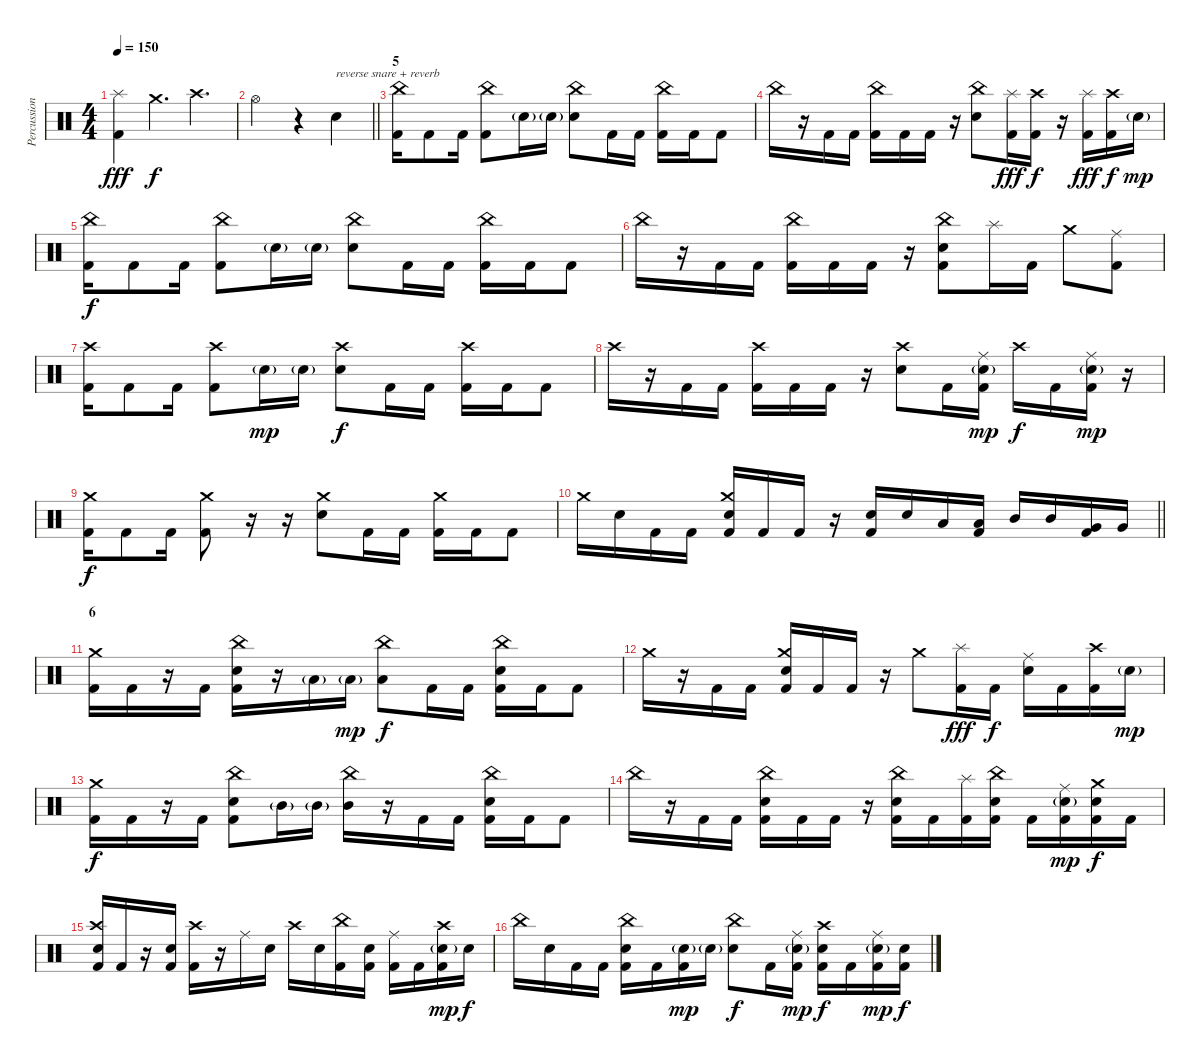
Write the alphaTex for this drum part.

\track ("Percussioni" "Percussion") {instrument percussion}
\staff {score}
\articulation defaults
\ts (4 4)
\tempo 150
\clef neutral
\ks c
("Splash (hit)" "Kick (hit) 2").4{dy fff} "Crash medium (hit)".4{d dy f} "Crash high (hit)".4{d} |
\barLineRight lightlight "Hi-Hat (open)".2
r.4 "Electric Snare (hit)".4{txt "reverse snare + reverb"} |
\section ("" "5")
("China (hit)" "Kick (hit) 2").16 "Kick (hit) 2".8 "Kick (hit) 2".16 ("China (hit)" "Kick (hit) 2").8 "Electric Snare (hit)"{g}.16 "Electric Snare (hit)"{g}.16 ("China (hit)" "Electric Snare (hit)").8 "Kick (hit) 2".16 "Kick (hit) 2".16 ("China (hit)" "Kick (hit) 2").16 "Kick (hit) 2".16 "Kick (hit) 2".8 |
"China (hit)".16 r.16 "Kick (hit) 2".16 "Kick (hit) 2".16 ("China (hit)" "Kick (hit) 2").16 "Kick (hit) 2".16 "Kick (hit) 2".16 r.16 ("China (hit)" "Electric Snare (hit)").8 ("Splash (hit)" "Kick (hit) 2").16{dy fff} ("Crash high (hit)" "Kick (hit) 2").16{dy f} r.16 ("Splash (hit)" "Kick (hit) 2").16{dy fff} ("Crash high (hit)" "Kick (hit) 2").16{dy f} "Electric Snare (hit)"{g}.16{dy mp} |
("China (hit)" "Kick (hit) 2").16{dy f} "Kick (hit) 2".8 "Kick (hit) 2".16 ("China (hit)" "Kick (hit) 2").8 "Electric Snare (hit)"{g}.16 "Electric Snare (hit)"{g}.16 ("China (hit)" "Electric Snare (hit)").8 "Kick (hit) 2".16 "Kick (hit) 2".16 ("China (hit)" "Kick (hit) 2").16 "Kick (hit) 2".16 "Kick (hit) 2".8 |
"China (hit)".16 r.16 "Kick (hit) 2".16 "Kick (hit) 2".16 ("China (hit)" "Kick (hit) 2").16 "Kick (hit) 2".16 "Kick (hit) 2".16 r.16 ("China (hit)" "Electric Snare (hit)" "Kick (hit) 2").8 "Splash (hit)".16 "Kick (hit) 2".16 "Crash medium (hit)".8 ("Ride (middle)" "Kick (hit) 2").8 |
("Crash high (hit)" "Kick (hit) 2").16 "Kick (hit) 2".8 "Kick (hit) 2".16 ("Crash high (hit)" "Kick (hit) 2").8 "Electric Snare (hit)"{g}.16{dy mp} "Electric Snare (hit)"{g}.16 ("Crash high (hit)" "Electric Snare (hit)").8{dy f} "Kick (hit) 2".16 "Kick (hit) 2".16 ("Crash high (hit)" "Kick (hit) 2").16 "Kick (hit) 2".16 "Kick (hit) 2".8 |
"Crash high (hit)".16 r.16 "Kick (hit) 2".16 "Kick (hit) 2".16 ("Crash high (hit)" "Kick (hit) 2").16 "Kick (hit) 2".16 "Kick (hit) 2".16 r.16 ("Crash high (hit)" "Electric Snare (hit)").8 "Kick (hit) 2".16 ("Ride (middle)" "Electric Snare (hit)"{g} "Kick (hit) 2").16{dy mp} "Crash high (hit)".16{dy f} "Kick (hit) 2".16 ("Ride (middle)" "Electric Snare (hit)"{g} "Kick (hit) 2").16{dy mp} r.16 |
("Crash medium (hit)" "Kick (hit) 2").16{dy f} "Kick (hit) 2".8 "Kick (hit) 2".16 ("Crash medium (hit)" "Kick (hit) 2").8 r.16 r.16 ("Crash medium (hit)" "Electric Snare (hit)").8 "Kick (hit) 2".16 "Kick (hit) 2".16 ("Crash medium (hit)" "Kick (hit) 2").16 "Kick (hit) 2".16 "Kick (hit) 2".8 |
\barLineRight lightlight "Crash medium (hit)".16 "Electric Snare (hit)".16 "Kick (hit) 2".16 "Kick (hit) 2".16
("Crash medium (hit)" "Electric Snare (hit)" "Kick (hit) 2").16 "Kick (hit) 2".16 "Kick (hit) 2".16 r.16 ("Electric Snare (hit)" "Kick (hit) 2").16 "Electric Snare (hit)".16 "Low Tom (hit)".16 ("Low Tom (hit)" "Kick (hit) 2").16 "Mid Tom (hit)".16 "Mid Tom (hit)".16 ("Very Low Tom (hit)" "Kick (hit) 2").16 "Very Low Tom (hit)".16 |
\section ("" "6")
("Crash medium (hit)" "Kick (hit) 2").16 "Kick (hit) 2".16 r.16 "Kick (hit) 2".16 ("China (hit)" "Electric Snare (hit)" "Kick (hit) 2").16 r.16 "Low Floor Tom (hit)"{g}.16 "Low Floor Tom (hit)"{g}.16{dy mp} ("China (hit)" "Low Floor Tom (hit)").8{dy f} "Kick (hit) 2".16 "Kick (hit) 2".16 ("Electric Snare (hit)" "China (hit)" "Kick (hit) 2").16 "Kick (hit) 2".16 "Kick (hit) 2".8 |
"Crash medium (hit)".16 r.16 "Kick (hit) 2".16 "Kick (hit) 2".16 ("Crash medium (hit)" "Electric Snare (hit)" "Kick (hit) 2").16 "Kick (hit) 2".16 "Kick (hit) 2".16 r.16 "Crash medium (hit)".8 ("Splash (hit)" "Kick (hit) 2").16{dy fff} "Kick (hit) 2".16{dy f} ("Ride (middle)" "Electric Snare (hit)").16 "Kick (hit) 2".16 ("Crash high (hit)" "Kick (hit) 2").16 "Electric Snare (hit)"{g}.16{dy mp} |
("Crash medium (hit)" "Kick (hit) 2").16{dy f} "Kick (hit) 2".16 r.16 "Kick (hit) 2".16 ("Electric Snare (hit)" "China (hit)" "Kick (hit) 2").8 "Mid Tom (hit)"{g}.16 "Mid Tom (hit)"{g}.16 ("China (hit)" "Mid Tom (hit)").16 r.16 "Kick (hit) 2".16 "Kick (hit) 2".16 ("Electric Snare (hit)" "China (hit)" "Kick (hit) 2").16 "Kick (hit) 2".16 "Kick (hit) 2".8 |
"China (hit)".16 r.16 "Kick (hit) 2".16 "Kick (hit) 2".16 ("China (hit)" "Electric Snare (hit)" "Kick (hit) 2").16 "Kick (hit) 2".16 "Kick (hit) 2".16 r.16 ("Electric Snare (hit)" "China (hit)" "Kick (hit) 2").16 "Kick (hit) 2".16 ("Splash (hit)" "Kick (hit) 2").16 ("Electric Snare (hit)" "China (hit)" "Kick (hit) 2").16 "Kick (hit) 2".16 ("Electric Snare (hit)"{g} "Ride (middle)" "Kick (hit) 2").16{dy mp} ("Electric Snare (hit)" "Crash medium (hit)" "Kick (hit) 2").16{dy f} "Kick (hit) 2".16 |
("Crash high (hit)" "Electric Snare (hit)" "Kick (hit) 2").16 "Kick (hit) 2".16 r.16 ("Electric Snare (hit)" "Kick (hit) 2").16 ("Crash high (hit)" "Kick (hit) 2").16 r.16 "Ride (middle)".16 "Electric Snare (hit)".16 "Crash high (hit)".16 "Electric Snare (hit)".16 ("China (hit)" "Kick (hit) 2").16 ("Electric Snare (hit)" "Kick (hit) 2").16 ("Ride (middle)" "Kick (hit) 2").16 "Kick (hit) 2".16 ("Crash high (hit)" "Electric Snare (hit)"{g} "Kick (hit) 2").16{dy mp} "Electric Snare (hit)".16{dy f} |
"China (hit)".16 "Electric Snare (hit)".16 "Kick (hit) 2".16 "Kick (hit) 2".16 ("China (hit)" "Electric Snare (hit)" "Kick (hit) 2").16 "Kick (hit) 2".16 ("Electric Snare (hit)"{g} "Kick (hit) 2").16{dy mp} "Electric Snare (hit)"{g}.16 ("China (hit)" "Electric Snare (hit)").8{dy f} "Kick (hit) 2".16 ("Ride (middle)" "Electric Snare (hit)"{g} "Kick (hit) 2").16{dy mp} ("Crash high (hit)" "Electric Snare (hit)" "Kick (hit) 2").16{dy f} "Kick (hit) 2".16 ("Ride (middle)" "Electric Snare (hit)"{g} "Kick (hit) 2").16{dy mp} ("Electric Snare (hit)" "Kick (hit) 2").16{dy f}
